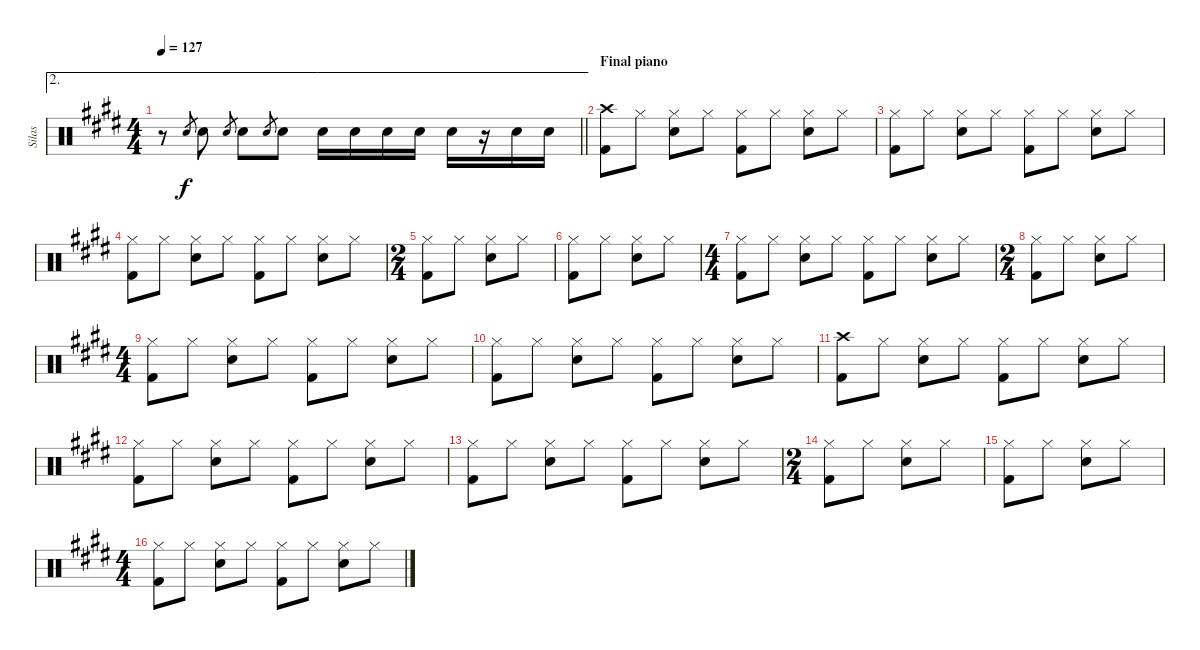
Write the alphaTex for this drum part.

\track ("Silas" "Silas") {instrument percussion}
\staff {score}
\articulation defaults
\ae 2
\ts (4 4)
\tempo 127
\clef neutral
\barLineRight lightlight
\ks e
r.8{dy f} "Snare (hit) 2".8{gr} "Snare (hit) 2".8 "Snare (hit) 2".8{gr} "Snare (hit) 2".8 "Snare (hit) 2".8{gr} "Snare (hit) 2".8 "Snare (hit) 2".16 "Snare (hit) 2".16 "Snare (hit) 2".16 "Snare (hit) 2".16 "Snare (hit) 2".16 r.16 "Snare (hit) 2".16 "Snare (hit) 2".16 |
\section ("" "Final piano")
("Crash high (hit)" "Kick (hit) 2").8 "Hi-Hat (closed)".8 ("Hi-Hat (closed)" "Snare (hit) 2").8 "Hi-Hat (closed)".8 ("Hi-Hat (closed)" "Kick (hit) 2").8 "Hi-Hat (closed)".8 ("Hi-Hat (closed)" "Snare (hit) 2").8 "Hi-Hat (closed)".8 |
("Hi-Hat (closed)" "Kick (hit) 2").8 "Hi-Hat (closed)".8 ("Hi-Hat (closed)" "Snare (hit) 2").8 "Hi-Hat (closed)".8 ("Hi-Hat (closed)" "Kick (hit) 2").8 "Hi-Hat (closed)".8 ("Hi-Hat (closed)" "Snare (hit) 2").8 "Hi-Hat (closed)".8 |
("Hi-Hat (closed)" "Kick (hit) 2").8 "Hi-Hat (closed)".8 ("Hi-Hat (closed)" "Snare (hit) 2").8 "Hi-Hat (closed)".8 ("Hi-Hat (closed)" "Kick (hit) 2").8 "Hi-Hat (closed)".8 ("Hi-Hat (closed)" "Snare (hit) 2").8 "Hi-Hat (closed)".8 |
\ts (2 4)
("Hi-Hat (closed)" "Kick (hit) 2").8 "Hi-Hat (closed)".8 ("Hi-Hat (closed)" "Snare (hit) 2").8 "Hi-Hat (closed)".8 |
("Hi-Hat (closed)" "Kick (hit) 2").8 "Hi-Hat (closed)".8 ("Hi-Hat (closed)" "Snare (hit) 2").8 "Hi-Hat (closed)".8 |
\ts (4 4)
("Hi-Hat (closed)" "Kick (hit) 2").8 "Hi-Hat (closed)".8 ("Hi-Hat (closed)" "Snare (hit) 2").8 "Hi-Hat (closed)".8 ("Hi-Hat (closed)" "Kick (hit) 2").8 "Hi-Hat (closed)".8 ("Hi-Hat (closed)" "Snare (hit) 2").8 "Hi-Hat (closed)".8 |
\ts (2 4)
("Hi-Hat (closed)" "Kick (hit) 2").8 "Hi-Hat (closed)".8 ("Hi-Hat (closed)" "Snare (hit) 2").8 "Hi-Hat (closed)".8 |
\ts (4 4)
("Hi-Hat (closed)" "Kick (hit) 2").8 "Hi-Hat (closed)".8 ("Hi-Hat (closed)" "Snare (hit) 2").8 "Hi-Hat (closed)".8 ("Hi-Hat (closed)" "Kick (hit) 2").8 "Hi-Hat (closed)".8 ("Hi-Hat (closed)" "Snare (hit) 2").8 "Hi-Hat (closed)".8 |
("Hi-Hat (closed)" "Kick (hit) 2").8 "Hi-Hat (closed)".8 ("Hi-Hat (closed)" "Snare (hit) 2").8 "Hi-Hat (closed)".8 ("Hi-Hat (closed)" "Kick (hit) 2").8 "Hi-Hat (closed)".8 ("Hi-Hat (closed)" "Snare (hit) 2").8 "Hi-Hat (closed)".8 |
("Crash high (hit)" "Kick (hit) 2").8 "Hi-Hat (closed)".8 ("Hi-Hat (closed)" "Snare (hit) 2").8 "Hi-Hat (closed)".8 ("Hi-Hat (closed)" "Kick (hit) 2").8 "Hi-Hat (closed)".8 ("Hi-Hat (closed)" "Snare (hit) 2").8 "Hi-Hat (closed)".8 |
("Hi-Hat (closed)" "Kick (hit) 2").8 "Hi-Hat (closed)".8 ("Hi-Hat (closed)" "Snare (hit) 2").8 "Hi-Hat (closed)".8 ("Hi-Hat (closed)" "Kick (hit) 2").8 "Hi-Hat (closed)".8 ("Hi-Hat (closed)" "Snare (hit) 2").8 "Hi-Hat (closed)".8 |
("Hi-Hat (closed)" "Kick (hit) 2").8 "Hi-Hat (closed)".8 ("Hi-Hat (closed)" "Snare (hit) 2").8 "Hi-Hat (closed)".8 ("Hi-Hat (closed)" "Kick (hit) 2").8 "Hi-Hat (closed)".8 ("Hi-Hat (closed)" "Snare (hit) 2").8 "Hi-Hat (closed)".8 |
\ts (2 4)
("Hi-Hat (closed)" "Kick (hit) 2").8 "Hi-Hat (closed)".8 ("Hi-Hat (closed)" "Snare (hit) 2").8 "Hi-Hat (closed)".8 |
("Hi-Hat (closed)" "Kick (hit) 2").8 "Hi-Hat (closed)".8 ("Hi-Hat (closed)" "Snare (hit) 2").8 "Hi-Hat (closed)".8 |
\ts (4 4)
("Hi-Hat (closed)" "Kick (hit) 2").8 "Hi-Hat (closed)".8 ("Hi-Hat (closed)" "Snare (hit) 2").8 "Hi-Hat (closed)".8 ("Hi-Hat (closed)" "Kick (hit) 2").8 "Hi-Hat (closed)".8 ("Hi-Hat (closed)" "Snare (hit) 2").8 "Hi-Hat (closed)".8
